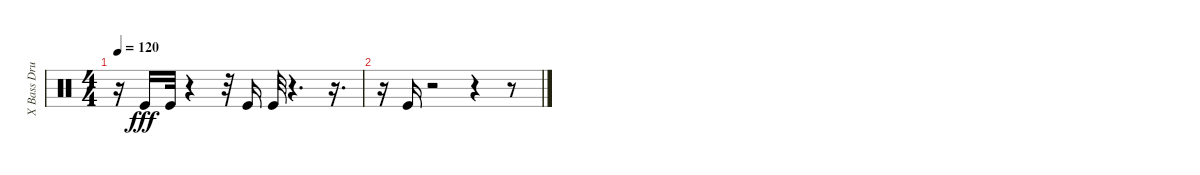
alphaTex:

\track ("X Bass Drum         " "X Bass Dru") {instrument percussion}
\staff {score}
\articulation defaults
\ts (4 4)
\tempo 120
\clef neutral
\ks c
r.16{dy fff} "Kick (hit)".16 "Kick (hit)".32 r.4 r.32 "Kick (hit)".16 "Kick (hit)".32 r.4{d} r.16{d} |
r.16 "Kick (hit)".16 r.2 r.4 r.8
